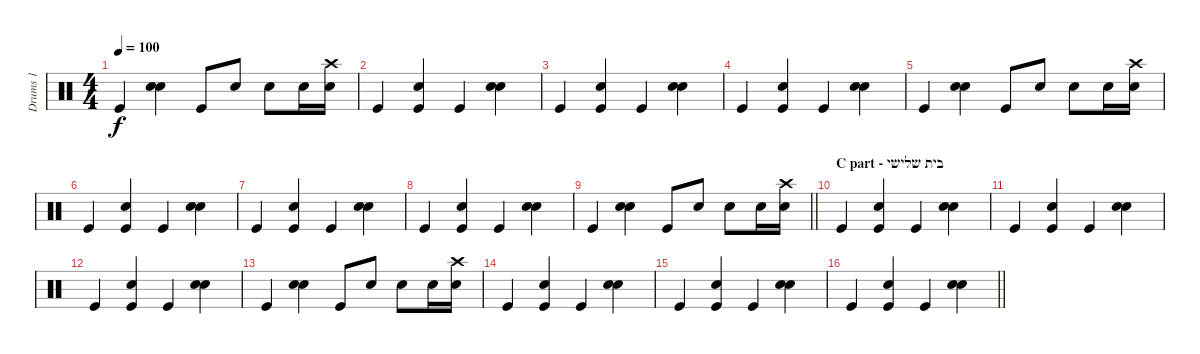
\track ("Drums 1" "Drums 1") {instrument percussion}
\staff {score}
\articulation defaults
\ts (4 4)
\tempo 100
\clef neutral
\ks c "Kick (hit)".4{dy f}
("Electric Snare (hit)" "Snare (hit) 2").4 "Kick (hit)".8 "Electric Snare (hit)".8 "Electric Snare (hit)".8 "Electric Snare (hit)".16 ("Electric Snare (hit)" "Crash high (hit)").16 |
"Kick (hit)".4 ("Electric Snare (hit)" "Kick (hit)").4 "Kick (hit)".4 ("Electric Snare (hit)" "Snare (hit) 2").4 |
"Kick (hit)".4 ("Electric Snare (hit)" "Kick (hit)").4 "Kick (hit)".4 ("Electric Snare (hit)" "Snare (hit) 2").4 |
"Kick (hit)".4 ("Electric Snare (hit)" "Kick (hit)").4 "Kick (hit)".4 ("Electric Snare (hit)" "Snare (hit) 2").4 |
"Kick (hit)".4 ("Electric Snare (hit)" "Snare (hit) 2").4 "Kick (hit)".8 "Electric Snare (hit)".8 "Electric Snare (hit)".8 "Electric Snare (hit)".16 ("Electric Snare (hit)" "Crash high (hit)").16 |
"Kick (hit)".4 ("Electric Snare (hit)" "Kick (hit)").4 "Kick (hit)".4 ("Electric Snare (hit)" "Snare (hit) 2").4 |
"Kick (hit)".4 ("Electric Snare (hit)" "Kick (hit)").4 "Kick (hit)".4 ("Electric Snare (hit)" "Snare (hit) 2").4 |
"Kick (hit)".4 ("Electric Snare (hit)" "Kick (hit)").4 "Kick (hit)".4 ("Electric Snare (hit)" "Snare (hit) 2").4 |
\barLineRight lightlight "Kick (hit)".4
("Electric Snare (hit)" "Snare (hit) 2").4 "Kick (hit)".8 "Electric Snare (hit)".8 "Electric Snare (hit)".8 "Electric Snare (hit)".16 ("Electric Snare (hit)" "Crash high (hit)").16 |
\section ("" "C part - בית שלישי")
"Kick (hit)".4 ("Electric Snare (hit)" "Kick (hit)").4 "Kick (hit)".4 ("Electric Snare (hit)" "Snare (hit) 2").4 |
"Kick (hit)".4 ("Electric Snare (hit)" "Kick (hit)").4 "Kick (hit)".4 ("Electric Snare (hit)" "Snare (hit) 2").4 |
"Kick (hit)".4 ("Electric Snare (hit)" "Kick (hit)").4 "Kick (hit)".4 ("Electric Snare (hit)" "Snare (hit) 2").4 |
"Kick (hit)".4 ("Electric Snare (hit)" "Snare (hit) 2").4 "Kick (hit)".8 "Electric Snare (hit)".8 "Electric Snare (hit)".8 "Electric Snare (hit)".16 ("Electric Snare (hit)" "Crash high (hit)").16 |
"Kick (hit)".4 ("Electric Snare (hit)" "Kick (hit)").4 "Kick (hit)".4 ("Electric Snare (hit)" "Snare (hit) 2").4 |
"Kick (hit)".4 ("Electric Snare (hit)" "Kick (hit)").4 "Kick (hit)".4 ("Electric Snare (hit)" "Snare (hit) 2").4 |
\barLineRight lightlight "Kick (hit)".4
("Electric Snare (hit)" "Kick (hit)").4 "Kick (hit)".4 ("Electric Snare (hit)" "Snare (hit) 2").4
